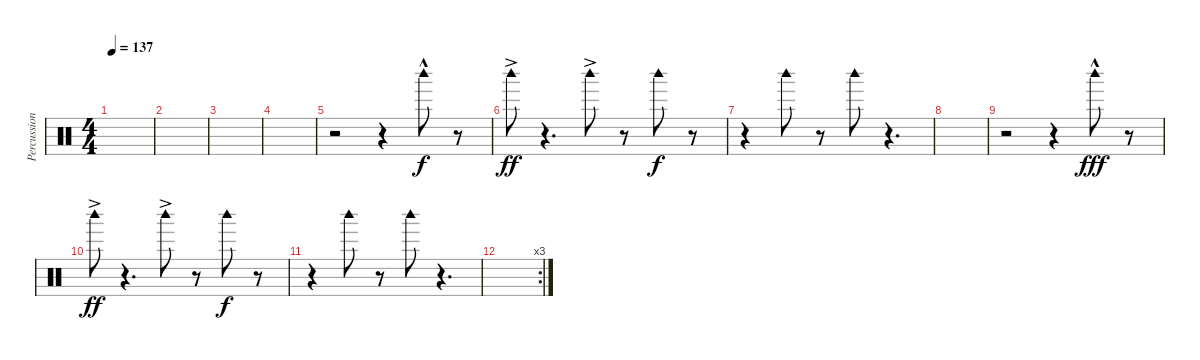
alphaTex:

\track ("Percussion" "Percussion") {instrument percussion}
\staff {score}
\articulation defaults
\ts (4 4)
\tempo 137
\clef neutral
\ks c
|
|
|
|
r.2{volume 13} r.4 "Woodblock high (hit)"{hac}.8 r.8 |
"Woodblock high (hit)"{ac}.8{dy ff} r.4{d} "Woodblock high (hit)"{ac}.8 r.8 "Woodblock high (hit)".8{dy f volume 0} r.8 |
r.4 "Woodblock high (hit)".8 r.8 "Woodblock high (hit)".8 r.4{d} |
|
r.2 r.4{volume 13} "Woodblock high (hit)"{hac}.8{dy fff} r.8 |
"Woodblock high (hit)"{ac}.8{dy ff} r.4{d} "Woodblock high (hit)"{ac}.8 r.8 "Woodblock high (hit)".8{dy f volume 0} r.8 |
r.4 "Woodblock high (hit)".8 r.8 "Woodblock high (hit)".8 r.4{d} |
\rc 3
